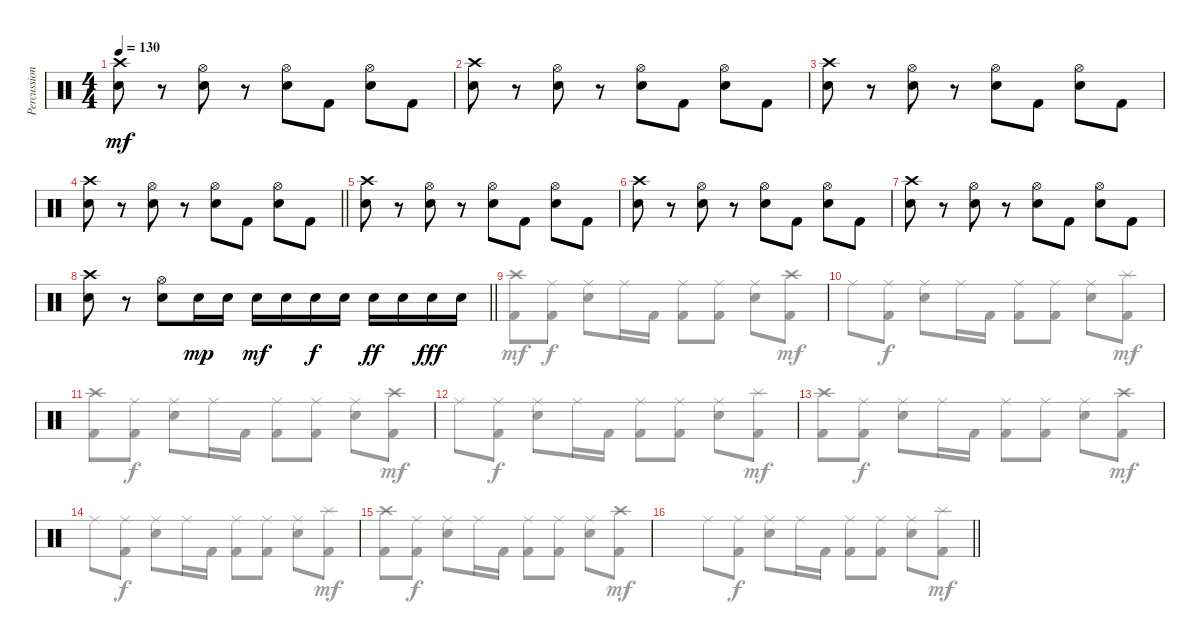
\track ("Percussion" "Percussion") {instrument percussion}
\staff {score}
\articulation defaults
\voice
\ts (4 4)
\tempo 130
\clef neutral
\ks c
("Crash high (hit)" "Electric Snare (hit)").8{dy mf} r.8 ("Hi-Hat (open)" "Electric Snare (hit)").8 r.8 ("Hi-Hat (open)" "Electric Snare (hit)").8 "Kick (hit) 2".8 ("Hi-Hat (open)" "Electric Snare (hit)").8 "Kick (hit) 2".8 |
("Crash high (hit)" "Electric Snare (hit)").8 r.8 ("Hi-Hat (open)" "Electric Snare (hit)").8 r.8 ("Hi-Hat (open)" "Electric Snare (hit)").8 "Kick (hit) 2".8 ("Hi-Hat (open)" "Electric Snare (hit)").8 "Kick (hit) 2".8 |
("Crash high (hit)" "Electric Snare (hit)").8 r.8 ("Hi-Hat (open)" "Electric Snare (hit)").8 r.8 ("Hi-Hat (open)" "Electric Snare (hit)").8 "Kick (hit) 2".8 ("Hi-Hat (open)" "Electric Snare (hit)").8 "Kick (hit) 2".8 |
\barLineRight lightlight
("Crash high (hit)" "Electric Snare (hit)").8 r.8 ("Hi-Hat (open)" "Electric Snare (hit)").8 r.8 ("Hi-Hat (open)" "Electric Snare (hit)").8 "Kick (hit) 2".8 ("Hi-Hat (open)" "Electric Snare (hit)").8 "Kick (hit) 2".8 |
("Crash high (hit)" "Electric Snare (hit)").8 r.8 ("Hi-Hat (open)" "Electric Snare (hit)").8 r.8 ("Hi-Hat (open)" "Electric Snare (hit)").8 "Kick (hit) 2".8 ("Hi-Hat (open)" "Electric Snare (hit)").8 "Kick (hit) 2".8 |
("Crash high (hit)" "Electric Snare (hit)").8 r.8 ("Hi-Hat (open)" "Electric Snare (hit)").8 r.8 ("Hi-Hat (open)" "Electric Snare (hit)").8 "Kick (hit) 2".8 ("Hi-Hat (open)" "Electric Snare (hit)").8 "Kick (hit) 2".8 |
("Crash high (hit)" "Electric Snare (hit)").8 r.8 ("Hi-Hat (open)" "Electric Snare (hit)").8 r.8 ("Hi-Hat (open)" "Electric Snare (hit)").8 "Kick (hit) 2".8 ("Hi-Hat (open)" "Electric Snare (hit)").8 "Kick (hit) 2".8 |
\barLineRight lightlight
("Crash high (hit)" "Electric Snare (hit)").8 r.8 ("Hi-Hat (open)" "Electric Snare (hit)").8 "Electric Snare (hit)".16{dy mp} "Electric Snare (hit)".16 "Electric Snare (hit)".16{dy mf} "Electric Snare (hit)".16 "Electric Snare (hit)".16{dy f} "Electric Snare (hit)".16 "Electric Snare (hit)".16{dy ff} "Electric Snare (hit)".16 "Electric Snare (hit)".16{dy fff} "Electric Snare (hit)".16 |
|
|
|
|
|
|
|
\barLineRight lightlight
\voice
\clef neutral
\ottava regular
\simile none
\ks c
|
|
|
\barLineRight lightlight
|
|
|
|
\barLineRight lightlight
|
("Crash high (hit)" "Kick (hit) 2").8{dy mf} ("Ride (middle)" "Kick (hit) 2").8{dy f} ("Ride (middle)" "Electric Snare (hit)").8 "Ride (middle)".16 "Kick (hit) 2".16 ("Ride (middle)" "Kick (hit) 2").8 ("Ride (middle)" "Kick (hit) 2").8 ("Ride (middle)" "Electric Snare (hit)").8 ("Crash high (hit)" "Kick (hit) 2").8{dy mf} |
"Ride (middle)".8 ("Ride (middle)" "Kick (hit) 2").8{dy f} ("Ride (middle)" "Electric Snare (hit)").8 "Ride (middle)".16 "Kick (hit) 2".16 ("Ride (middle)" "Kick (hit) 2").8 ("Ride (middle)" "Kick (hit) 2").8 ("Ride (middle)" "Electric Snare (hit)").8 ("Splash (hit)" "Kick (hit) 2").8{dy mf} |
("Crash high (hit)" "Kick (hit) 2").8 ("Ride (middle)" "Kick (hit) 2").8{dy f} ("Ride (middle)" "Electric Snare (hit)").8 "Ride (middle)".16 "Kick (hit) 2".16 ("Ride (middle)" "Kick (hit) 2").8 ("Ride (middle)" "Kick (hit) 2").8 ("Ride (middle)" "Electric Snare (hit)").8 ("Crash high (hit)" "Kick (hit) 2").8{dy mf} |
"Ride (middle)".8 ("Ride (middle)" "Kick (hit) 2").8{dy f} ("Ride (middle)" "Electric Snare (hit)").8 "Ride (middle)".16 "Kick (hit) 2".16 ("Ride (middle)" "Kick (hit) 2").8 ("Ride (middle)" "Kick (hit) 2").8 ("Ride (middle)" "Electric Snare (hit)").8 ("Splash (hit)" "Kick (hit) 2").8{dy mf} |
("Crash high (hit)" "Kick (hit) 2").8 ("Ride (middle)" "Kick (hit) 2").8{dy f} ("Ride (middle)" "Electric Snare (hit)").8 "Ride (middle)".16 "Kick (hit) 2".16 ("Ride (middle)" "Kick (hit) 2").8 ("Ride (middle)" "Kick (hit) 2").8 ("Ride (middle)" "Electric Snare (hit)").8 ("Crash high (hit)" "Kick (hit) 2").8{dy mf} |
"Ride (middle)".8 ("Ride (middle)" "Kick (hit) 2").8{dy f} ("Ride (middle)" "Electric Snare (hit)").8 "Ride (middle)".16 "Kick (hit) 2".16 ("Ride (middle)" "Kick (hit) 2").8 ("Ride (middle)" "Kick (hit) 2").8 ("Ride (middle)" "Electric Snare (hit)").8 ("Splash (hit)" "Kick (hit) 2").8{dy mf} |
("Crash high (hit)" "Kick (hit) 2").8 ("Ride (middle)" "Kick (hit) 2").8{dy f} ("Ride (middle)" "Electric Snare (hit)").8 "Ride (middle)".16 "Kick (hit) 2".16 ("Ride (middle)" "Kick (hit) 2").8 ("Ride (middle)" "Kick (hit) 2").8 ("Ride (middle)" "Electric Snare (hit)").8 ("Crash high (hit)" "Kick (hit) 2").8{dy mf} |
\barLineRight lightlight "Ride (middle)".8
("Ride (middle)" "Kick (hit) 2").8{dy f} ("Ride (middle)" "Electric Snare (hit)").8 "Ride (middle)".16 "Kick (hit) 2".16 ("Ride (middle)" "Kick (hit) 2").8 ("Ride (middle)" "Kick (hit) 2").8 ("Ride (middle)" "Electric Snare (hit)").8 ("Splash (hit)" "Kick (hit) 2").8{dy mf}
